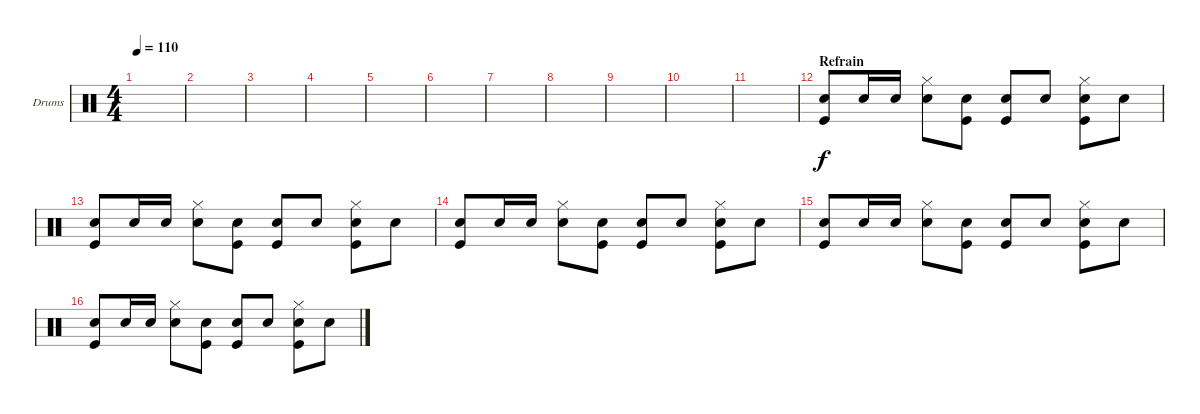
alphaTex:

\bracketExtendMode groupsimilarinstruments
\firstSystemTrackNameOrientation horizontal
\otherSystemsTrackNameOrientation horizontal
\track ("Drumkit" "Drums") {instrument percussion}
\staff {score}
\articulation defaults
\ts (4 4)
\beaming (8 2 2 2 2)
\tempo 110
\clef neutral
\scale
0.472222
\ks c
|
\scale
0.263889 |
\scale
0.263889 |
\scale
0.333333 |
\scale
0.333333 |
\scale
0.333333 |
\scale
0.333333 |
\scale
0.333333 |
\scale
0.333333 |
\scale
0.333333 |
\scale
0.333333 |
\section ("" "Refrain")
\scale
0.333333 ("Kick (hit)" "Snare (hit) 2").8 "Snare (hit) 2".16 "Snare (hit) 2".16 ("Snare (hit) 2" "Hi-Hat (closed)").8 ("Kick (hit)" "Snare (hit) 2").8 ("Kick (hit)" "Snare (hit) 2").8 "Snare (hit) 2".8 ("Kick (hit)" "Snare (hit) 2" "Hi-Hat (closed)").8 "Snare (hit) 2".8 |
\scale
0.333333 ("Kick (hit)" "Snare (hit) 2").8 "Snare (hit) 2".16 "Snare (hit) 2".16 ("Snare (hit) 2" "Hi-Hat (closed)").8 ("Kick (hit)" "Snare (hit) 2").8 ("Kick (hit)" "Snare (hit) 2").8 "Snare (hit) 2".8 ("Kick (hit)" "Snare (hit) 2" "Hi-Hat (closed)").8 "Snare (hit) 2".8 |
\scale
0.333333 ("Kick (hit)" "Snare (hit) 2").8 "Snare (hit) 2".16 "Snare (hit) 2".16 ("Snare (hit) 2" "Hi-Hat (closed)").8 ("Kick (hit)" "Snare (hit) 2").8 ("Kick (hit)" "Snare (hit) 2").8 "Snare (hit) 2".8 ("Kick (hit)" "Snare (hit) 2" "Hi-Hat (closed)").8 "Snare (hit) 2".8 |
\scale
0.333333 ("Kick (hit)" "Snare (hit) 2").8 "Snare (hit) 2".16 "Snare (hit) 2".16 ("Snare (hit) 2" "Hi-Hat (closed)").8 ("Kick (hit)" "Snare (hit) 2").8 ("Kick (hit)" "Snare (hit) 2").8 "Snare (hit) 2".8 ("Kick (hit)" "Snare (hit) 2" "Hi-Hat (closed)").8 "Snare (hit) 2".8 |
\scale
0.333333 ("Kick (hit)" "Snare (hit) 2").8 "Snare (hit) 2".16 "Snare (hit) 2".16 ("Snare (hit) 2" "Hi-Hat (closed)").8 ("Kick (hit)" "Snare (hit) 2").8 ("Kick (hit)" "Snare (hit) 2").8 "Snare (hit) 2".8 ("Kick (hit)" "Snare (hit) 2" "Hi-Hat (closed)").8 "Snare (hit) 2".8
